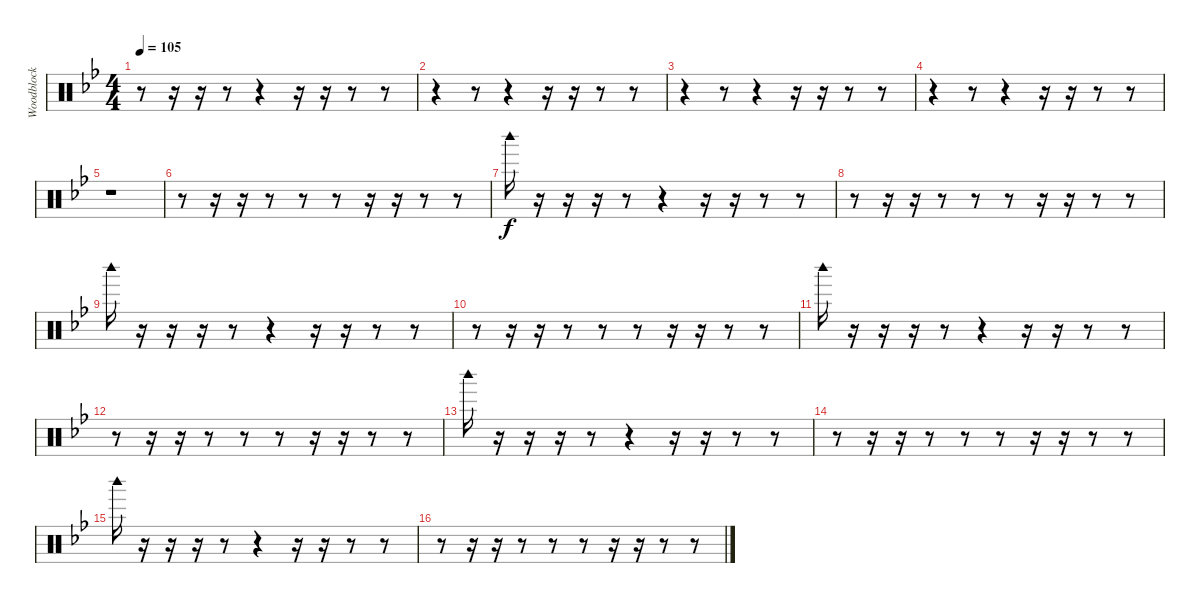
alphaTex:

\track ("Woodblock" "Woodblock") {instrument percussion}
\staff {score}
\articulation defaults
\ts (4 4)
\tempo 105
\clef neutral
\ks gminor
r.8{dy f} r.16 r.16 r.8 r.4 r.16 r.16 r.8 r.8 |
r.4 r.8 r.4 r.16 r.16 r.8 r.8 |
r.4 r.8 r.4 r.16 r.16 r.8 r.8 |
r.4 r.8 r.4 r.16 r.16 r.8 r.8 |
r.1 |
r.8 r.16 r.16 r.8 r.8 r.8 r.16 r.16 r.8 r.8 |
"Woodblock high (hit)".16 r.16 r.16 r.16 r.8 r.4 r.16 r.16 r.8 r.8 |
r.8 r.16 r.16 r.8 r.8 r.8 r.16 r.16 r.8 r.8 |
"Woodblock high (hit)".16 r.16 r.16 r.16 r.8 r.4 r.16 r.16 r.8 r.8 |
r.8 r.16 r.16 r.8 r.8 r.8 r.16 r.16 r.8 r.8 |
"Woodblock high (hit)".16 r.16 r.16 r.16 r.8 r.4 r.16 r.16 r.8 r.8 |
r.8 r.16 r.16 r.8 r.8 r.8 r.16 r.16 r.8 r.8 |
"Woodblock high (hit)".16 r.16 r.16 r.16 r.8 r.4 r.16 r.16 r.8 r.8 |
r.8 r.16 r.16 r.8 r.8 r.8 r.16 r.16 r.8 r.8 |
"Woodblock high (hit)".16 r.16 r.16 r.16 r.8 r.4 r.16 r.16 r.8 r.8 |
r.8 r.16 r.16 r.8 r.8 r.8 r.16 r.16 r.8 r.8
